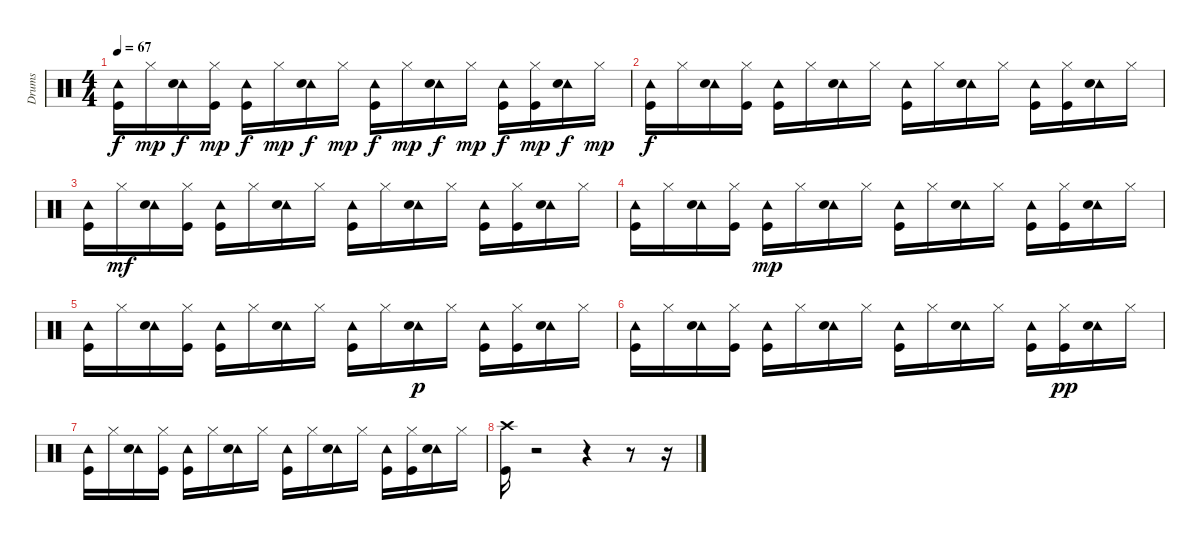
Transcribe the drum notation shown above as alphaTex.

\track ("Drums" "Drums") {instrument percussion}
\staff {score}
\articulation defaults
\ts (4 4)
\tempo 67
\clef neutral
\ks c
("Kick (hit)" "Tambourine (hit)").16{dy f} "Hi-Hat (closed)".16{dy mp} ("Tambourine (hit)" "Snare (hit) 2").16{dy f} ("Kick (hit)" "Hi-Hat (closed)").16{dy mp} ("Kick (hit)" "Tambourine (hit)").16{dy f} "Hi-Hat (closed)".16{dy mp} ("Tambourine (hit)" "Snare (hit) 2").16{dy f} "Hi-Hat (closed)".16{dy mp} ("Kick (hit)" "Tambourine (hit)").16{dy f} "Hi-Hat (closed)".16{dy mp} ("Tambourine (hit)" "Snare (hit) 2").16{dy f} "Hi-Hat (closed)".16{dy mp} ("Kick (hit)" "Tambourine (hit)").16{dy f} ("Kick (hit)" "Hi-Hat (closed)").16{dy mp} ("Tambourine (hit)" "Snare (hit) 2").16{dy f} "Hi-Hat (closed)".16{dy mp} |
("Tambourine (hit)" "Kick (hit)").16{dy f} "Hi-Hat (closed)".16 ("Tambourine (hit)" "Snare (hit) 2").16 ("Kick (hit)" "Hi-Hat (closed)").16 ("Kick (hit)" "Tambourine (hit)").16 "Hi-Hat (closed)".16 ("Tambourine (hit)" "Snare (hit) 2").16 "Hi-Hat (closed)".16 ("Kick (hit)" "Tambourine (hit)").16 "Hi-Hat (closed)".16 ("Tambourine (hit)" "Snare (hit) 2").16 "Hi-Hat (closed)".16 ("Kick (hit)" "Tambourine (hit)").16 ("Kick (hit)" "Hi-Hat (closed)").16 ("Tambourine (hit)" "Snare (hit) 2").16 "Hi-Hat (closed)".16 |
("Kick (hit)" "Tambourine (hit)").16 "Hi-Hat (closed)".16{dy mf} ("Tambourine (hit)" "Snare (hit) 2").16 ("Kick (hit)" "Hi-Hat (closed)").16 ("Kick (hit)" "Tambourine (hit)").16 "Hi-Hat (closed)".16 ("Tambourine (hit)" "Snare (hit) 2").16 "Hi-Hat (closed)".16 ("Kick (hit)" "Tambourine (hit)").16 "Hi-Hat (closed)".16 ("Tambourine (hit)" "Snare (hit) 2").16 "Hi-Hat (closed)".16 ("Kick (hit)" "Tambourine (hit)").16 ("Kick (hit)" "Hi-Hat (closed)").16 ("Tambourine (hit)" "Snare (hit) 2").16 "Hi-Hat (closed)".16 |
("Kick (hit)" "Tambourine (hit)").16 "Hi-Hat (closed)".16 ("Tambourine (hit)" "Snare (hit) 2").16 ("Kick (hit)" "Hi-Hat (closed)").16 ("Kick (hit)" "Tambourine (hit)").16{dy mp} "Hi-Hat (closed)".16 ("Tambourine (hit)" "Snare (hit) 2").16 "Hi-Hat (closed)".16 ("Kick (hit)" "Tambourine (hit)").16 "Hi-Hat (closed)".16 ("Tambourine (hit)" "Snare (hit) 2").16 "Hi-Hat (closed)".16 ("Kick (hit)" "Tambourine (hit)").16 ("Kick (hit)" "Hi-Hat (closed)").16 ("Tambourine (hit)" "Snare (hit) 2").16 "Hi-Hat (closed)".16 |
("Kick (hit)" "Tambourine (hit)").16 "Hi-Hat (closed)".16 ("Tambourine (hit)" "Snare (hit) 2").16 ("Kick (hit)" "Hi-Hat (closed)").16 ("Kick (hit)" "Tambourine (hit)").16 "Hi-Hat (closed)".16 ("Tambourine (hit)" "Snare (hit) 2").16 "Hi-Hat (closed)".16 ("Kick (hit)" "Tambourine (hit)").16 "Hi-Hat (closed)".16 ("Tambourine (hit)" "Snare (hit) 2").16{dy p} "Hi-Hat (closed)".16 ("Kick (hit)" "Tambourine (hit)").16 ("Kick (hit)" "Hi-Hat (closed)").16 ("Tambourine (hit)" "Snare (hit) 2").16 "Hi-Hat (closed)".16 |
("Kick (hit)" "Tambourine (hit)").16 "Hi-Hat (closed)".16 ("Tambourine (hit)" "Snare (hit) 2").16 ("Kick (hit)" "Hi-Hat (closed)").16 ("Kick (hit)" "Tambourine (hit)").16 "Hi-Hat (closed)".16 ("Tambourine (hit)" "Snare (hit) 2").16 "Hi-Hat (closed)".16 ("Kick (hit)" "Tambourine (hit)").16 "Hi-Hat (closed)".16 ("Tambourine (hit)" "Snare (hit) 2").16 "Hi-Hat (closed)".16 ("Kick (hit)" "Tambourine (hit)").16 ("Kick (hit)" "Hi-Hat (closed)").16{dy pp} ("Tambourine (hit)" "Snare (hit) 2").16 "Hi-Hat (closed)".16 |
("Kick (hit)" "Tambourine (hit)").16 "Hi-Hat (closed)".16 ("Tambourine (hit)" "Snare (hit) 2").16 ("Kick (hit)" "Hi-Hat (closed)").16 ("Kick (hit)" "Tambourine (hit)").16 "Hi-Hat (closed)".16 ("Tambourine (hit)" "Snare (hit) 2").16 "Hi-Hat (closed)".16 ("Kick (hit)" "Tambourine (hit)").16 "Hi-Hat (closed)".16 ("Tambourine (hit)" "Snare (hit) 2").16 "Hi-Hat (closed)".16 ("Kick (hit)" "Tambourine (hit)").16 ("Kick (hit)" "Hi-Hat (closed)").16 ("Tambourine (hit)" "Snare (hit) 2").16 "Hi-Hat (closed)".16 |
("Kick (hit)" "Crash high (hit)").16 r.2 r.4 r.8 r.16
